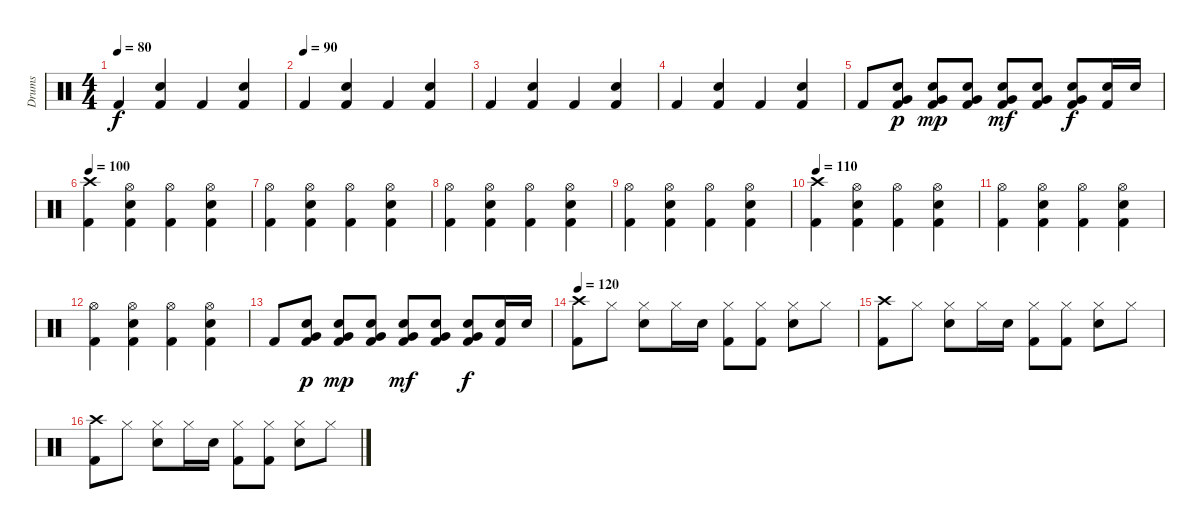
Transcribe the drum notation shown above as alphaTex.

\track ("Drums" "Drums") {instrument percussion}
\staff {score}
\articulation defaults
\ts (4 4)
\tempo 80
\clef neutral
\ks c "Kick (hit) 2".4{dy f}
("Snare (hit) 2" "Kick (hit) 2").4 "Kick (hit) 2".4 ("Snare (hit) 2" "Kick (hit) 2").4 |
\tempo (90)
"Kick (hit) 2".4 ("Snare (hit) 2" "Kick (hit) 2").4 "Kick (hit) 2".4 ("Snare (hit) 2" "Kick (hit) 2").4 |
"Kick (hit) 2".4 ("Snare (hit) 2" "Kick (hit) 2").4 "Kick (hit) 2".4 ("Snare (hit) 2" "Kick (hit) 2").4 |
"Kick (hit) 2".4 ("Snare (hit) 2" "Kick (hit) 2").4 "Kick (hit) 2".4 ("Snare (hit) 2" "Kick (hit) 2").4 |
"Kick (hit) 2".8 ("Very Low Tom (hit)" "Snare (hit) 2" "Kick (hit) 2").8{dy p} ("Very Low Tom (hit)" "Snare (hit) 2" "Kick (hit) 2").8{dy mp} ("Very Low Tom (hit)" "Snare (hit) 2" "Kick (hit) 2").8 ("Very Low Tom (hit)" "Snare (hit) 2" "Kick (hit) 2").8{dy mf} ("Very Low Tom (hit)" "Snare (hit) 2" "Kick (hit) 2").8 ("Very Low Tom (hit)" "Snare (hit) 2" "Kick (hit) 2").8{dy f} ("Snare (hit) 2" "Kick (hit) 2").16 "Snare (hit) 2".16 |
\tempo 100
("Crash high (hit)" "Kick (hit) 2").4 ("Hi-Hat (open)" "Snare (hit) 2" "Kick (hit) 2").4 ("Hi-Hat (open)" "Kick (hit) 2").4 ("Hi-Hat (open)" "Snare (hit) 2" "Kick (hit) 2").4 |
("Hi-Hat (open)" "Kick (hit) 2").4 ("Hi-Hat (open)" "Snare (hit) 2" "Kick (hit) 2").4 ("Hi-Hat (open)" "Kick (hit) 2").4 ("Hi-Hat (open)" "Snare (hit) 2" "Kick (hit) 2").4 |
("Hi-Hat (open)" "Kick (hit) 2").4 ("Hi-Hat (open)" "Snare (hit) 2" "Kick (hit) 2").4 ("Hi-Hat (open)" "Kick (hit) 2").4 ("Hi-Hat (open)" "Snare (hit) 2" "Kick (hit) 2").4 |
("Hi-Hat (open)" "Kick (hit) 2").4 ("Hi-Hat (open)" "Snare (hit) 2" "Kick (hit) 2").4 ("Hi-Hat (open)" "Kick (hit) 2").4 ("Hi-Hat (open)" "Snare (hit) 2" "Kick (hit) 2").4 |
\tempo 110
("Crash high (hit)" "Kick (hit) 2").4 ("Hi-Hat (open)" "Snare (hit) 2" "Kick (hit) 2").4 ("Hi-Hat (open)" "Kick (hit) 2").4 ("Hi-Hat (open)" "Snare (hit) 2" "Kick (hit) 2").4 |
("Hi-Hat (open)" "Kick (hit) 2").4 ("Hi-Hat (open)" "Snare (hit) 2" "Kick (hit) 2").4 ("Hi-Hat (open)" "Kick (hit) 2").4 ("Hi-Hat (open)" "Snare (hit) 2" "Kick (hit) 2").4 |
("Hi-Hat (open)" "Kick (hit) 2").4 ("Hi-Hat (open)" "Snare (hit) 2" "Kick (hit) 2").4 ("Hi-Hat (open)" "Kick (hit) 2").4 ("Hi-Hat (open)" "Snare (hit) 2" "Kick (hit) 2").4 |
"Kick (hit) 2".8 ("Very Low Tom (hit)" "Snare (hit) 2" "Kick (hit) 2").8{dy p} ("Very Low Tom (hit)" "Snare (hit) 2" "Kick (hit) 2").8{dy mp} ("Very Low Tom (hit)" "Snare (hit) 2" "Kick (hit) 2").8 ("Very Low Tom (hit)" "Snare (hit) 2" "Kick (hit) 2").8{dy mf} ("Very Low Tom (hit)" "Snare (hit) 2" "Kick (hit) 2").8 ("Very Low Tom (hit)" "Snare (hit) 2" "Kick (hit) 2").8{dy f} ("Snare (hit) 2" "Kick (hit) 2").16 "Snare (hit) 2".16 |
\tempo 120
("Crash high (hit)" "Kick (hit) 2").8 "Hi-Hat (closed)".8 ("Hi-Hat (closed)" "Snare (hit) 2").8 "Hi-Hat (closed)".16 "Snare (hit) 2".16 ("Hi-Hat (closed)" "Kick (hit) 2").8 ("Hi-Hat (closed)" "Kick (hit) 2").8 ("Hi-Hat (closed)" "Snare (hit) 2").8 "Hi-Hat (closed)".8 |
("Crash high (hit)" "Kick (hit) 2").8 "Hi-Hat (closed)".8 ("Hi-Hat (closed)" "Snare (hit) 2").8 "Hi-Hat (closed)".16 "Snare (hit) 2".16 ("Hi-Hat (closed)" "Kick (hit) 2").8 ("Hi-Hat (closed)" "Kick (hit) 2").8 ("Hi-Hat (closed)" "Snare (hit) 2").8 "Hi-Hat (closed)".8 |
("Crash high (hit)" "Kick (hit) 2").8 "Hi-Hat (closed)".8 ("Hi-Hat (closed)" "Snare (hit) 2").8 "Hi-Hat (closed)".16 "Snare (hit) 2".16 ("Hi-Hat (closed)" "Kick (hit) 2").8 ("Hi-Hat (closed)" "Kick (hit) 2").8 ("Hi-Hat (closed)" "Snare (hit) 2").8 "Hi-Hat (closed)".8
